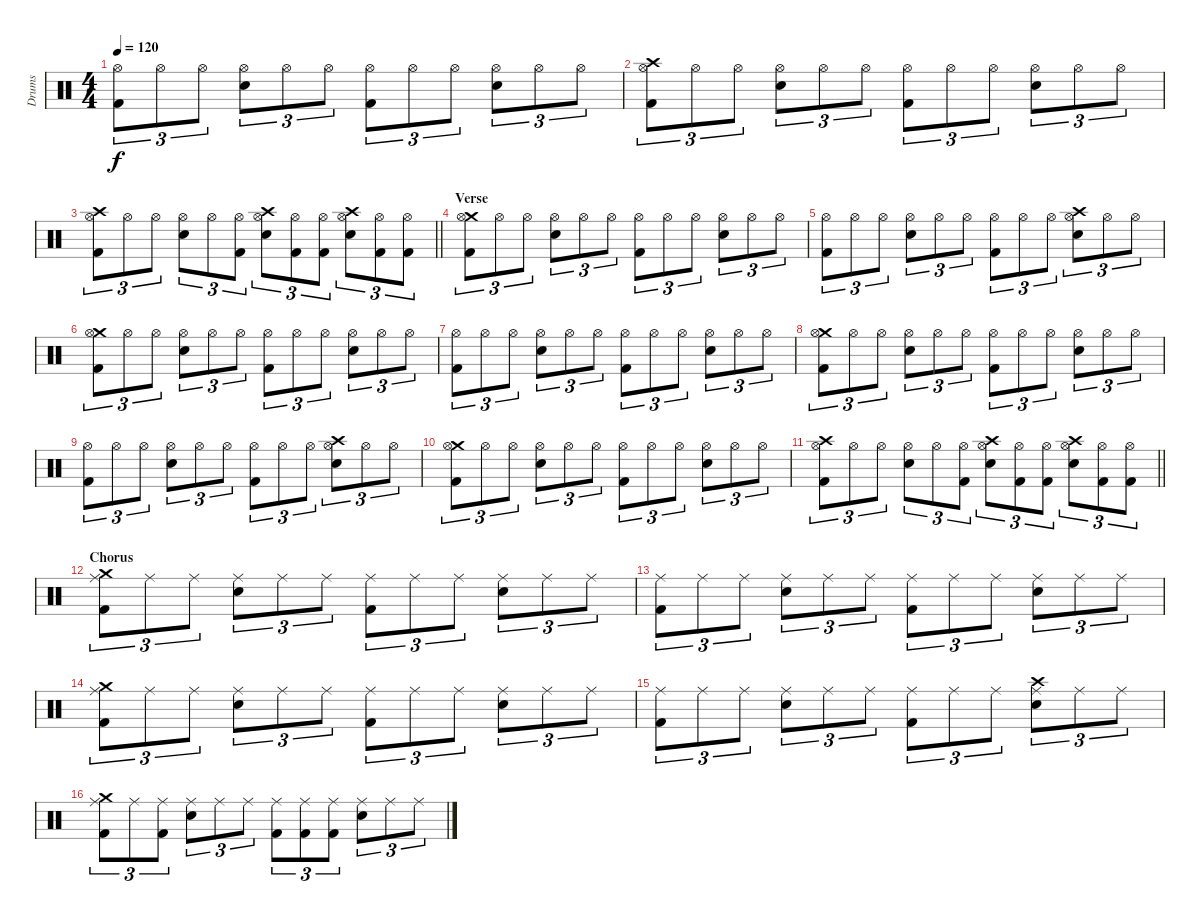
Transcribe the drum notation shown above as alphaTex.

\track ("Drums" "Drums") {instrument percussion}
\staff {score}
\articulation defaults
\ts (4 4)
\tempo 120
\clef neutral
\ks c
("Hi-Hat (open)" "Kick (hit) 2").8{tu (3 2) dy f} "Hi-Hat (open)".8{tu (3 2)} "Hi-Hat (open)".8{tu (3 2)} ("Hi-Hat (open)" "Snare (hit) 2").8{tu (3 2)} "Hi-Hat (open)".8{tu (3 2)} "Hi-Hat (open)".8{tu (3 2)} ("Hi-Hat (open)" "Kick (hit) 2").8{tu (3 2)} "Hi-Hat (open)".8{tu (3 2)} "Hi-Hat (open)".8{tu (3 2)} ("Hi-Hat (open)" "Snare (hit) 2").8{tu (3 2)} "Hi-Hat (open)".8{tu (3 2)} "Hi-Hat (open)".8{tu (3 2)} |
("Crash high (hit)" "Hi-Hat (open)" "Kick (hit) 2").8{tu (3 2)} "Hi-Hat (open)".8{tu (3 2)} "Hi-Hat (open)".8{tu (3 2)} ("Hi-Hat (open)" "Snare (hit) 2").8{tu (3 2)} "Hi-Hat (open)".8{tu (3 2)} "Hi-Hat (open)".8{tu (3 2)} ("Hi-Hat (open)" "Kick (hit) 2").8{tu (3 2)} "Hi-Hat (open)".8{tu (3 2)} "Hi-Hat (open)".8{tu (3 2)} ("Hi-Hat (open)" "Snare (hit) 2").8{tu (3 2)} "Hi-Hat (open)".8{tu (3 2)} "Hi-Hat (open)".8{tu (3 2)} |
\barLineRight lightlight
("Crash high (hit)" "Hi-Hat (open)" "Kick (hit) 2").8{tu (3 2)} "Hi-Hat (open)".8{tu (3 2)} "Hi-Hat (open)".8{tu (3 2)} ("Hi-Hat (open)" "Snare (hit) 2").8{tu (3 2)} "Hi-Hat (open)".8{tu (3 2)} ("Hi-Hat (open)" "Kick (hit) 2").8{tu (3 2)} ("Crash high (hit)" "Hi-Hat (open)" "Snare (hit) 2").8{tu (3 2)} ("Hi-Hat (open)" "Kick (hit) 2").8{tu (3 2)} ("Hi-Hat (open)" "Kick (hit) 2").8{tu (3 2)} ("Crash high (hit)" "Hi-Hat (open)" "Snare (hit) 2").8{tu (3 2)} ("Hi-Hat (open)" "Kick (hit) 2").8{tu (3 2)} ("Hi-Hat (open)" "Kick (hit) 2").8{tu (3 2)} |
\section ("" "Verse")
("Crash medium (hit)" "Hi-Hat (open)" "Kick (hit) 2").8{tu (3 2)} "Hi-Hat (open)".8{tu (3 2)} "Hi-Hat (open)".8{tu (3 2)} ("Hi-Hat (open)" "Snare (hit) 2").8{tu (3 2)} "Hi-Hat (open)".8{tu (3 2)} "Hi-Hat (open)".8{tu (3 2)} ("Hi-Hat (open)" "Kick (hit) 2").8{tu (3 2)} "Hi-Hat (open)".8{tu (3 2)} "Hi-Hat (open)".8{tu (3 2)} ("Hi-Hat (open)" "Snare (hit) 2").8{tu (3 2)} "Hi-Hat (open)".8{tu (3 2)} "Hi-Hat (open)".8{tu (3 2)} |
("Hi-Hat (open)" "Kick (hit) 2").8{tu (3 2)} "Hi-Hat (open)".8{tu (3 2)} "Hi-Hat (open)".8{tu (3 2)} ("Hi-Hat (open)" "Snare (hit) 2").8{tu (3 2)} "Hi-Hat (open)".8{tu (3 2)} "Hi-Hat (open)".8{tu (3 2)} ("Hi-Hat (open)" "Kick (hit) 2").8{tu (3 2)} "Hi-Hat (open)".8{tu (3 2)} "Hi-Hat (open)".8{tu (3 2)} ("Crash high (hit)" "Hi-Hat (open)" "Snare (hit) 2").8{tu (3 2)} "Hi-Hat (open)".8{tu (3 2)} "Hi-Hat (open)".8{tu (3 2)} |
("Crash medium (hit)" "Hi-Hat (open)" "Kick (hit) 2").8{tu (3 2)} "Hi-Hat (open)".8{tu (3 2)} "Hi-Hat (open)".8{tu (3 2)} ("Hi-Hat (open)" "Snare (hit) 2").8{tu (3 2)} "Hi-Hat (open)".8{tu (3 2)} "Hi-Hat (open)".8{tu (3 2)} ("Hi-Hat (open)" "Kick (hit) 2").8{tu (3 2)} "Hi-Hat (open)".8{tu (3 2)} "Hi-Hat (open)".8{tu (3 2)} ("Hi-Hat (open)" "Snare (hit) 2").8{tu (3 2)} "Hi-Hat (open)".8{tu (3 2)} "Hi-Hat (open)".8{tu (3 2)} |
("Hi-Hat (open)" "Kick (hit) 2").8{tu (3 2)} "Hi-Hat (open)".8{tu (3 2)} "Hi-Hat (open)".8{tu (3 2)} ("Hi-Hat (open)" "Snare (hit) 2").8{tu (3 2)} "Hi-Hat (open)".8{tu (3 2)} "Hi-Hat (open)".8{tu (3 2)} ("Hi-Hat (open)" "Kick (hit) 2").8{tu (3 2)} "Hi-Hat (open)".8{tu (3 2)} "Hi-Hat (open)".8{tu (3 2)} ("Hi-Hat (open)" "Snare (hit) 2").8{tu (3 2)} "Hi-Hat (open)".8{tu (3 2)} "Hi-Hat (open)".8{tu (3 2)} |
("Crash medium (hit)" "Hi-Hat (open)" "Kick (hit) 2").8{tu (3 2)} "Hi-Hat (open)".8{tu (3 2)} "Hi-Hat (open)".8{tu (3 2)} ("Hi-Hat (open)" "Snare (hit) 2").8{tu (3 2)} "Hi-Hat (open)".8{tu (3 2)} "Hi-Hat (open)".8{tu (3 2)} ("Hi-Hat (open)" "Kick (hit) 2").8{tu (3 2)} "Hi-Hat (open)".8{tu (3 2)} "Hi-Hat (open)".8{tu (3 2)} ("Hi-Hat (open)" "Snare (hit) 2").8{tu (3 2)} "Hi-Hat (open)".8{tu (3 2)} "Hi-Hat (open)".8{tu (3 2)} |
("Hi-Hat (open)" "Kick (hit) 2").8{tu (3 2)} "Hi-Hat (open)".8{tu (3 2)} "Hi-Hat (open)".8{tu (3 2)} ("Hi-Hat (open)" "Snare (hit) 2").8{tu (3 2)} "Hi-Hat (open)".8{tu (3 2)} "Hi-Hat (open)".8{tu (3 2)} ("Hi-Hat (open)" "Kick (hit) 2").8{tu (3 2)} "Hi-Hat (open)".8{tu (3 2)} "Hi-Hat (open)".8{tu (3 2)} ("Crash high (hit)" "Hi-Hat (open)" "Snare (hit) 2").8{tu (3 2)} "Hi-Hat (open)".8{tu (3 2)} "Hi-Hat (open)".8{tu (3 2)} |
("Crash medium (hit)" "Hi-Hat (open)" "Kick (hit) 2").8{tu (3 2)} "Hi-Hat (open)".8{tu (3 2)} "Hi-Hat (open)".8{tu (3 2)} ("Hi-Hat (open)" "Snare (hit) 2").8{tu (3 2)} "Hi-Hat (open)".8{tu (3 2)} "Hi-Hat (open)".8{tu (3 2)} ("Hi-Hat (open)" "Kick (hit) 2").8{tu (3 2)} "Hi-Hat (open)".8{tu (3 2)} "Hi-Hat (open)".8{tu (3 2)} ("Hi-Hat (open)" "Snare (hit) 2").8{tu (3 2)} "Hi-Hat (open)".8{tu (3 2)} "Hi-Hat (open)".8{tu (3 2)} |
\barLineRight lightlight
("Crash high (hit)" "Hi-Hat (open)" "Kick (hit) 2").8{tu (3 2)} "Hi-Hat (open)".8{tu (3 2)} "Hi-Hat (open)".8{tu (3 2)} ("Hi-Hat (open)" "Snare (hit) 2").8{tu (3 2)} "Hi-Hat (open)".8{tu (3 2)} ("Hi-Hat (open)" "Kick (hit) 2").8{tu (3 2)} ("Crash high (hit)" "Hi-Hat (open)" "Snare (hit) 2").8{tu (3 2)} ("Hi-Hat (open)" "Kick (hit) 2").8{tu (3 2)} ("Hi-Hat (open)" "Kick (hit) 2").8{tu (3 2)} ("Crash high (hit)" "Hi-Hat (open)" "Snare (hit) 2").8{tu (3 2)} ("Hi-Hat (open)" "Kick (hit) 2").8{tu (3 2)} ("Hi-Hat (open)" "Kick (hit) 2").8{tu (3 2)} |
\section ("" "Chorus")
("Crash medium (hit)" "Ride (middle)" "Kick (hit) 2").8{tu (3 2)} "Ride (middle)".8{tu (3 2)} "Ride (middle)".8{tu (3 2)} ("Ride (middle)" "Snare (hit) 2").8{tu (3 2)} "Ride (middle)".8{tu (3 2)} "Ride (middle)".8{tu (3 2)} ("Ride (middle)" "Kick (hit) 2").8{tu (3 2)} "Ride (middle)".8{tu (3 2)} "Ride (middle)".8{tu (3 2)} ("Ride (middle)" "Snare (hit) 2").8{tu (3 2)} "Ride (middle)".8{tu (3 2)} "Ride (middle)".8{tu (3 2)} |
("Ride (middle)" "Kick (hit) 2").8{tu (3 2)} "Ride (middle)".8{tu (3 2)} "Ride (middle)".8{tu (3 2)} ("Ride (middle)" "Snare (hit) 2").8{tu (3 2)} "Ride (middle)".8{tu (3 2)} "Ride (middle)".8{tu (3 2)} ("Ride (middle)" "Kick (hit) 2").8{tu (3 2)} "Ride (middle)".8{tu (3 2)} "Ride (middle)".8{tu (3 2)} ("Ride (middle)" "Snare (hit) 2").8{tu (3 2)} "Ride (middle)".8{tu (3 2)} "Ride (middle)".8{tu (3 2)} |
("Crash medium (hit)" "Ride (middle)" "Kick (hit) 2").8{tu (3 2)} "Ride (middle)".8{tu (3 2)} "Ride (middle)".8{tu (3 2)} ("Ride (middle)" "Snare (hit) 2").8{tu (3 2)} "Ride (middle)".8{tu (3 2)} "Ride (middle)".8{tu (3 2)} ("Ride (middle)" "Kick (hit) 2").8{tu (3 2)} "Ride (middle)".8{tu (3 2)} "Ride (middle)".8{tu (3 2)} ("Ride (middle)" "Snare (hit) 2").8{tu (3 2)} "Ride (middle)".8{tu (3 2)} "Ride (middle)".8{tu (3 2)} |
("Ride (middle)" "Kick (hit) 2").8{tu (3 2)} "Ride (middle)".8{tu (3 2)} "Ride (middle)".8{tu (3 2)} ("Ride (middle)" "Snare (hit) 2").8{tu (3 2)} "Ride (middle)".8{tu (3 2)} "Ride (middle)".8{tu (3 2)} ("Ride (middle)" "Kick (hit) 2").8{tu (3 2)} "Ride (middle)".8{tu (3 2)} "Ride (middle)".8{tu (3 2)} ("Crash high (hit)" "Ride (middle)" "Snare (hit) 2").8{tu (3 2)} "Ride (middle)".8{tu (3 2)} "Ride (middle)".8{tu (3 2)} |
("Crash medium (hit)" "Ride (middle)" "Kick (hit) 2").8{tu (3 2)} "Ride (middle)".8{tu (3 2)} ("Ride (middle)" "Kick (hit) 2").8{tu (3 2)} ("Ride (middle)" "Snare (hit) 2").8{tu (3 2)} "Ride (middle)".8{tu (3 2)} "Ride (middle)".8{tu (3 2)} ("Ride (middle)" "Kick (hit) 2").8{tu (3 2)} ("Ride (middle)" "Kick (hit) 2").8{tu (3 2)} ("Ride (middle)" "Kick (hit) 2").8{tu (3 2)} ("Ride (middle)" "Snare (hit) 2").8{tu (3 2)} "Ride (middle)".8{tu (3 2)} "Ride (middle)".8{tu (3 2)}
